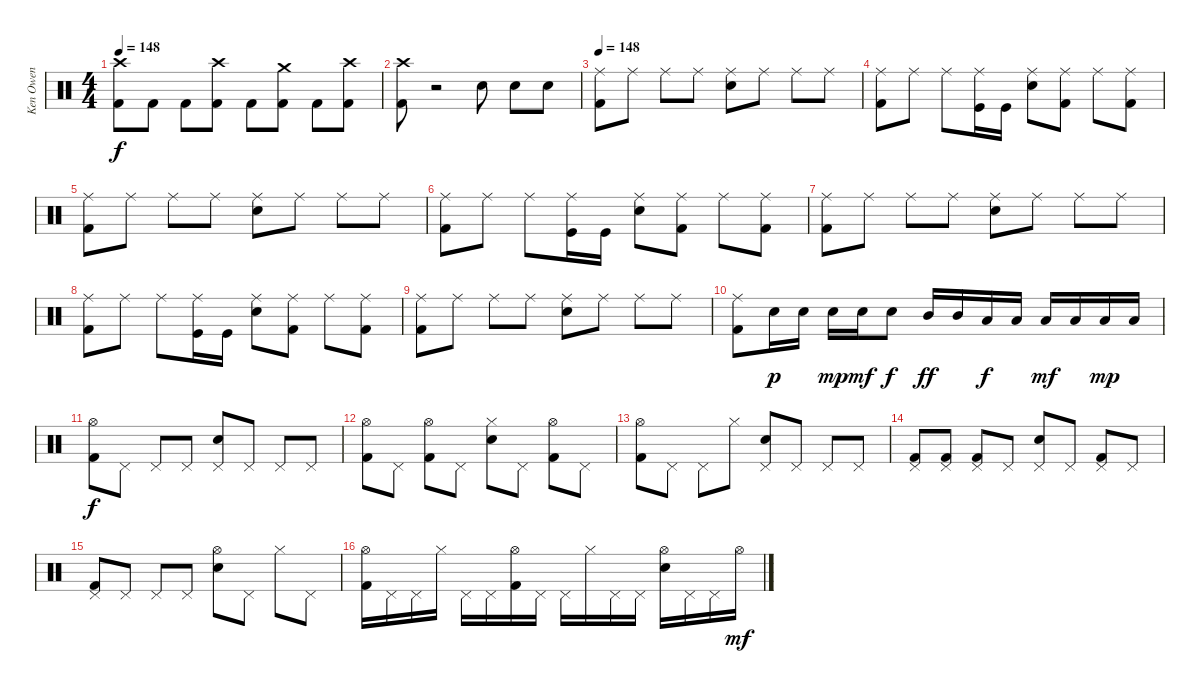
\track ("Ken Owen" "Ken Owen") {instrument percussion}
\staff {score}
\articulation defaults
\ts (4 4)
\tempo 148
\tempo 135
\tempo 148
\clef neutral
\ks c
("Kick (hit) 2" "Crash high (hit)").8{dy f} "Kick (hit) 2".8 "Kick (hit) 2".8 ("Kick (hit) 2" "Crash high (hit)").8 "Kick (hit) 2".8 ("Kick (hit) 2" "Crash medium (hit)").8 "Kick (hit) 2".8 ("Kick (hit) 2" "Crash high (hit)").8 |
("Kick (hit) 2" "Crash high (hit)").8 r.2 "Snare (hit) 2".8 "Snare (hit) 2".8 "Snare (hit) 2".8 |
\tempo 148
("Ride (middle)" "Kick (hit) 2").8 "Ride (middle)".8 "Ride (middle)".8 "Ride (middle)".8 ("Ride (middle)" "Snare (hit) 2").8 "Ride (middle)".8 "Ride (middle)".8 "Ride (middle)".8 |
("Ride (middle)" "Kick (hit) 2").8 "Ride (middle)".8 "Ride (middle)".8 ("Ride (middle)" "Kick (hit)").16 "Kick (hit)".16 ("Ride (middle)" "Snare (hit) 2").8 ("Ride (middle)" "Kick (hit) 2").8 "Ride (middle)".8 ("Ride (middle)" "Kick (hit) 2").8 |
("Ride (middle)" "Kick (hit) 2").8 "Ride (middle)".8 "Ride (middle)".8 "Ride (middle)".8 ("Ride (middle)" "Snare (hit) 2").8 "Ride (middle)".8 "Ride (middle)".8 "Ride (middle)".8 |
("Ride (middle)" "Kick (hit) 2").8 "Ride (middle)".8 "Ride (middle)".8 ("Ride (middle)" "Kick (hit)").16 "Kick (hit)".16 ("Ride (middle)" "Snare (hit) 2").8 ("Ride (middle)" "Kick (hit) 2").8 "Ride (middle)".8 ("Ride (middle)" "Kick (hit) 2").8 |
("Ride (middle)" "Kick (hit) 2").8 "Ride (middle)".8 "Ride (middle)".8 "Ride (middle)".8 ("Ride (middle)" "Snare (hit) 2").8 "Ride (middle)".8 "Ride (middle)".8 "Ride (middle)".8 |
("Ride (middle)" "Kick (hit) 2").8 "Ride (middle)".8 "Ride (middle)".8 ("Ride (middle)" "Kick (hit)").16 "Kick (hit)".16 ("Ride (middle)" "Snare (hit) 2").8 ("Ride (middle)" "Kick (hit) 2").8 "Ride (middle)".8 ("Ride (middle)" "Kick (hit) 2").8 |
("Ride (middle)" "Kick (hit) 2").8 "Ride (middle)".8 "Ride (middle)".8 "Ride (middle)".8 ("Ride (middle)" "Snare (hit) 2").8 "Ride (middle)".8 "Ride (middle)".8 "Ride (middle)".8 |
("Ride (middle)" "Kick (hit) 2").8 "Snare (hit) 2".16{dy p balance 5} "Snare (hit) 2".16 "Snare (hit) 2".16{dy mp balance 6} "Snare (hit) 2".16{dy mf} "Snare (hit) 2".8{dy f balance 7} "Mid Tom (hit)".16{dy ff balance 9} "Mid Tom (hit)".16{balance 10} "Low Tom (hit)".16{dy f} "Low Tom (hit)".16 "Low Tom (hit)".16{dy mf balance 11} "Low Tom (hit)".16{balance 12} "Low Tom (hit)".16{dy mp balance 13} "Low Tom (hit)".16{balance 14} |
("Hi-Hat (open)" "Kick (hit) 2").8{dy f balance 8} "Pedal Hi-Hat (hit)".8 "Pedal Hi-Hat (hit)".8 "Pedal Hi-Hat (hit)".8 ("Pedal Hi-Hat (hit)" "Snare (hit) 2").8 "Pedal Hi-Hat (hit)".8 "Pedal Hi-Hat (hit)".8 "Pedal Hi-Hat (hit)".8 |
("Hi-Hat (open)" "Kick (hit) 2").8 "Pedal Hi-Hat (hit)".8 ("Hi-Hat (open)" "Kick (hit) 2").8 "Pedal Hi-Hat (hit)".8 ("Hi-Hat (closed)" "Snare (hit) 2").8 "Pedal Hi-Hat (hit)".8 ("Hi-Hat (open)" "Kick (hit) 2").8 "Pedal Hi-Hat (hit)".8 |
("Hi-Hat (open)" "Kick (hit) 2").8 "Pedal Hi-Hat (hit)".8 "Pedal Hi-Hat (hit)".8 "Hi-Hat (closed)".8 ("Pedal Hi-Hat (hit)" "Snare (hit) 2").8 "Pedal Hi-Hat (hit)".8 "Pedal Hi-Hat (hit)".8 "Pedal Hi-Hat (hit)".8 |
("Pedal Hi-Hat (hit)" "Kick (hit) 2").8 ("Pedal Hi-Hat (hit)" "Kick (hit) 2").8 ("Pedal Hi-Hat (hit)" "Kick (hit) 2").8 "Pedal Hi-Hat (hit)".8 ("Pedal Hi-Hat (hit)" "Snare (hit) 2").8 "Pedal Hi-Hat (hit)".8 ("Pedal Hi-Hat (hit)" "Kick (hit) 2").8 "Pedal Hi-Hat (hit)".8 |
("Pedal Hi-Hat (hit)" "Kick (hit) 2").8 "Pedal Hi-Hat (hit)".8 "Pedal Hi-Hat (hit)".8 "Pedal Hi-Hat (hit)".8 ("Hi-Hat (open)" "Snare (hit) 2").8 "Pedal Hi-Hat (hit)".8 "Hi-Hat (closed)".8 "Pedal Hi-Hat (hit)".8 |
("Hi-Hat (open)" "Kick (hit) 2").16 "Pedal Hi-Hat (hit)".16 "Pedal Hi-Hat (hit)".16 "Hi-Hat (closed)".16 "Pedal Hi-Hat (hit)".16 "Pedal Hi-Hat (hit)".16 ("Hi-Hat (open)" "Kick (hit) 2").16 "Pedal Hi-Hat (hit)".16 "Pedal Hi-Hat (hit)".16 "Hi-Hat (closed)".16 "Pedal Hi-Hat (hit)".16 "Pedal Hi-Hat (hit)".16 ("Hi-Hat (open)" "Snare (hit) 2").16 "Pedal Hi-Hat (hit)".16 "Pedal Hi-Hat (hit)".16 "Hi-Hat (open)".16{dy mf}
